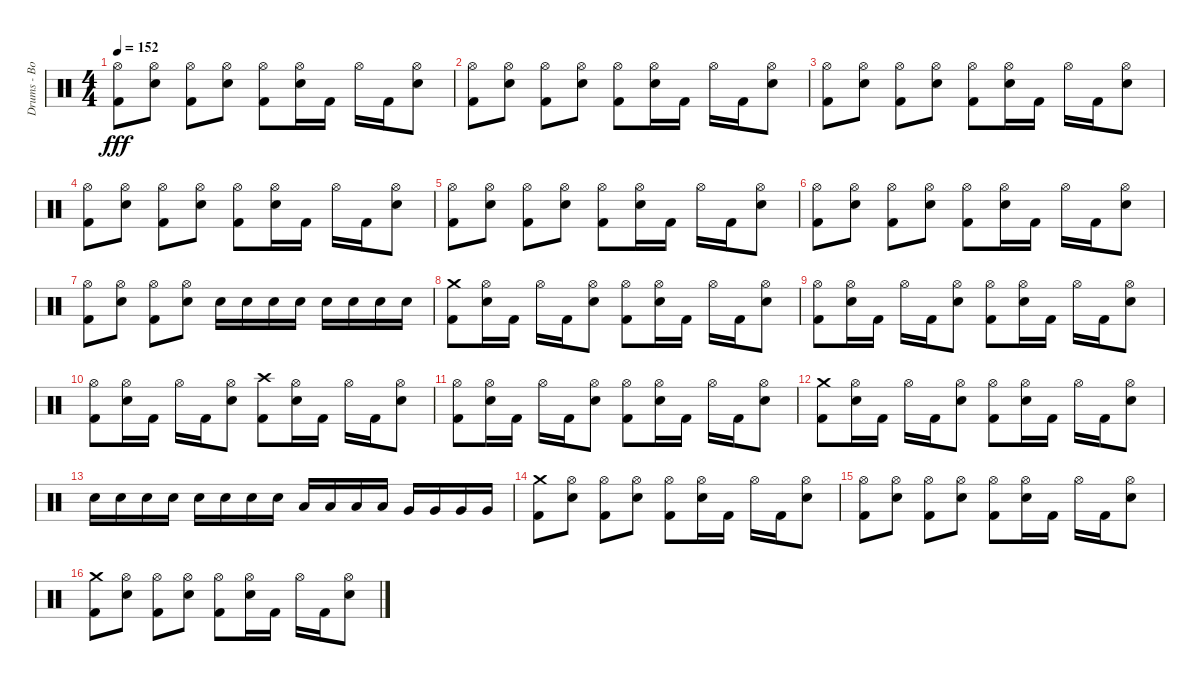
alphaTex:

\track ("Drums - Bobby Schayer" "Drums - Bo") {instrument percussion}
\staff {score}
\articulation defaults
\ts (4 4)
\tempo 152
\clef neutral
\ks c
("Kick (hit) 2" "Hi-Hat (open)").8{dy fff} ("Electric Snare (hit)" "Hi-Hat (open)").8 ("Kick (hit) 2" "Hi-Hat (open)").8 ("Electric Snare (hit)" "Hi-Hat (open)").8 ("Kick (hit) 2" "Hi-Hat (open)").8 ("Electric Snare (hit)" "Hi-Hat (open)").16 "Kick (hit) 2".16 "Hi-Hat (open)".16 "Kick (hit) 2".16 ("Electric Snare (hit)" "Hi-Hat (open)").8 |
("Kick (hit) 2" "Hi-Hat (open)").8 ("Electric Snare (hit)" "Hi-Hat (open)").8 ("Kick (hit) 2" "Hi-Hat (open)").8 ("Electric Snare (hit)" "Hi-Hat (open)").8 ("Kick (hit) 2" "Hi-Hat (open)").8 ("Electric Snare (hit)" "Hi-Hat (open)").16 "Kick (hit) 2".16 "Hi-Hat (open)".16 "Kick (hit) 2".16 ("Electric Snare (hit)" "Hi-Hat (open)").8 |
("Kick (hit) 2" "Hi-Hat (open)").8 ("Electric Snare (hit)" "Hi-Hat (open)").8 ("Kick (hit) 2" "Hi-Hat (open)").8 ("Electric Snare (hit)" "Hi-Hat (open)").8 ("Kick (hit) 2" "Hi-Hat (open)").8 ("Electric Snare (hit)" "Hi-Hat (open)").16 "Kick (hit) 2".16 "Hi-Hat (open)".16 "Kick (hit) 2".16 ("Electric Snare (hit)" "Hi-Hat (open)").8 |
("Kick (hit) 2" "Hi-Hat (open)").8 ("Electric Snare (hit)" "Hi-Hat (open)").8 ("Kick (hit) 2" "Hi-Hat (open)").8 ("Electric Snare (hit)" "Hi-Hat (open)").8 ("Kick (hit) 2" "Hi-Hat (open)").8 ("Electric Snare (hit)" "Hi-Hat (open)").16 "Kick (hit) 2".16 "Hi-Hat (open)".16 "Kick (hit) 2".16 ("Electric Snare (hit)" "Hi-Hat (open)").8 |
("Kick (hit) 2" "Hi-Hat (open)").8 ("Electric Snare (hit)" "Hi-Hat (open)").8 ("Kick (hit) 2" "Hi-Hat (open)").8 ("Electric Snare (hit)" "Hi-Hat (open)").8 ("Kick (hit) 2" "Hi-Hat (open)").8 ("Electric Snare (hit)" "Hi-Hat (open)").16 "Kick (hit) 2".16 "Hi-Hat (open)".16 "Kick (hit) 2".16 ("Electric Snare (hit)" "Hi-Hat (open)").8 |
("Kick (hit) 2" "Hi-Hat (open)").8 ("Electric Snare (hit)" "Hi-Hat (open)").8 ("Kick (hit) 2" "Hi-Hat (open)").8 ("Electric Snare (hit)" "Hi-Hat (open)").8 ("Kick (hit) 2" "Hi-Hat (open)").8 ("Electric Snare (hit)" "Hi-Hat (open)").16 "Kick (hit) 2".16 "Hi-Hat (open)".16 "Kick (hit) 2".16 ("Electric Snare (hit)" "Hi-Hat (open)").8 |
("Kick (hit) 2" "Hi-Hat (open)").8 ("Electric Snare (hit)" "Hi-Hat (open)").8 ("Kick (hit) 2" "Hi-Hat (open)").8 ("Electric Snare (hit)" "Hi-Hat (open)").8 "Electric Snare (hit)".16 "Electric Snare (hit)".16 "Electric Snare (hit)".16 "Electric Snare (hit)".16 "Electric Snare (hit)".16 "Electric Snare (hit)".16 "Electric Snare (hit)".16 "Electric Snare (hit)".16 |
("Kick (hit) 2" "Crash medium (hit)").8 ("Electric Snare (hit)" "Hi-Hat (open)").16 "Kick (hit) 2".16 "Hi-Hat (open)".16 "Kick (hit) 2".16 ("Electric Snare (hit)" "Hi-Hat (open)").8 ("Kick (hit) 2" "Hi-Hat (open)").8 ("Electric Snare (hit)" "Hi-Hat (open)").16 "Kick (hit) 2".16 "Hi-Hat (open)".16 "Kick (hit) 2".16 ("Electric Snare (hit)" "Hi-Hat (open)").8 |
("Kick (hit) 2" "Hi-Hat (open)").8 ("Electric Snare (hit)" "Hi-Hat (open)").16 "Kick (hit) 2".16 "Hi-Hat (open)".16 "Kick (hit) 2".16 ("Electric Snare (hit)" "Hi-Hat (open)").8 ("Kick (hit) 2" "Hi-Hat (open)").8 ("Electric Snare (hit)" "Hi-Hat (open)").16 "Kick (hit) 2".16 "Hi-Hat (open)".16 "Kick (hit) 2".16 ("Electric Snare (hit)" "Hi-Hat (open)").8 |
("Kick (hit) 2" "Hi-Hat (open)").8 ("Electric Snare (hit)" "Hi-Hat (open)").16 "Kick (hit) 2".16 "Hi-Hat (open)".16 "Kick (hit) 2".16 ("Electric Snare (hit)" "Hi-Hat (open)").8 ("Crash high (hit)" "Kick (hit) 2").8 ("Electric Snare (hit)" "Hi-Hat (open)").16 "Kick (hit) 2".16 "Hi-Hat (open)".16 "Kick (hit) 2".16 ("Electric Snare (hit)" "Hi-Hat (open)").8 |
("Kick (hit) 2" "Hi-Hat (open)").8 ("Electric Snare (hit)" "Hi-Hat (open)").16 "Kick (hit) 2".16 "Hi-Hat (open)".16 "Kick (hit) 2".16 ("Electric Snare (hit)" "Hi-Hat (open)").8 ("Kick (hit) 2" "Hi-Hat (open)").8 ("Electric Snare (hit)" "Hi-Hat (open)").16 "Kick (hit) 2".16 "Hi-Hat (open)".16 "Kick (hit) 2".16 ("Electric Snare (hit)" "Hi-Hat (open)").8 |
("Kick (hit) 2" "Crash medium (hit)").8 ("Electric Snare (hit)" "Hi-Hat (open)").16 "Kick (hit) 2".16 "Hi-Hat (open)".16 "Kick (hit) 2".16 ("Electric Snare (hit)" "Hi-Hat (open)").8 ("Kick (hit) 2" "Hi-Hat (open)").8 ("Electric Snare (hit)" "Hi-Hat (open)").16 "Kick (hit) 2".16 "Hi-Hat (open)".16 "Kick (hit) 2".16 ("Electric Snare (hit)" "Hi-Hat (open)").8 |
"Electric Snare (hit)".16 "Electric Snare (hit)".16 "Electric Snare (hit)".16 "Electric Snare (hit)".16 "Electric Snare (hit)".16 "Electric Snare (hit)".16 "Electric Snare (hit)".16 "Electric Snare (hit)".16 "Low Tom (hit)".16 "Low Tom (hit)".16 "Low Tom (hit)".16 "Low Tom (hit)".16 "Very Low Tom (hit)".16 "Very Low Tom (hit)".16 "Very Low Tom (hit)".16 "Very Low Tom (hit)".16 |
("Crash medium (hit)" "Kick (hit) 2").8 ("Electric Snare (hit)" "Hi-Hat (open)").8 ("Kick (hit) 2" "Hi-Hat (open)").8 ("Electric Snare (hit)" "Hi-Hat (open)").8 ("Kick (hit) 2" "Hi-Hat (open)").8 ("Electric Snare (hit)" "Hi-Hat (open)").16 "Kick (hit) 2".16 "Hi-Hat (open)".16 "Kick (hit) 2".16 ("Electric Snare (hit)" "Hi-Hat (open)").8 |
("Kick (hit) 2" "Hi-Hat (open)").8 ("Electric Snare (hit)" "Hi-Hat (open)").8 ("Kick (hit) 2" "Hi-Hat (open)").8 ("Electric Snare (hit)" "Hi-Hat (open)").8 ("Kick (hit) 2" "Hi-Hat (open)").8 ("Electric Snare (hit)" "Hi-Hat (open)").16 "Kick (hit) 2".16 "Hi-Hat (open)".16 "Kick (hit) 2".16 ("Electric Snare (hit)" "Hi-Hat (open)").8 |
("Crash medium (hit)" "Kick (hit) 2").8 ("Electric Snare (hit)" "Hi-Hat (open)").8 ("Kick (hit) 2" "Hi-Hat (open)").8 ("Electric Snare (hit)" "Hi-Hat (open)").8 ("Kick (hit) 2" "Hi-Hat (open)").8 ("Electric Snare (hit)" "Hi-Hat (open)").16 "Kick (hit) 2".16 "Hi-Hat (open)".16 "Kick (hit) 2".16 ("Electric Snare (hit)" "Hi-Hat (open)").8
